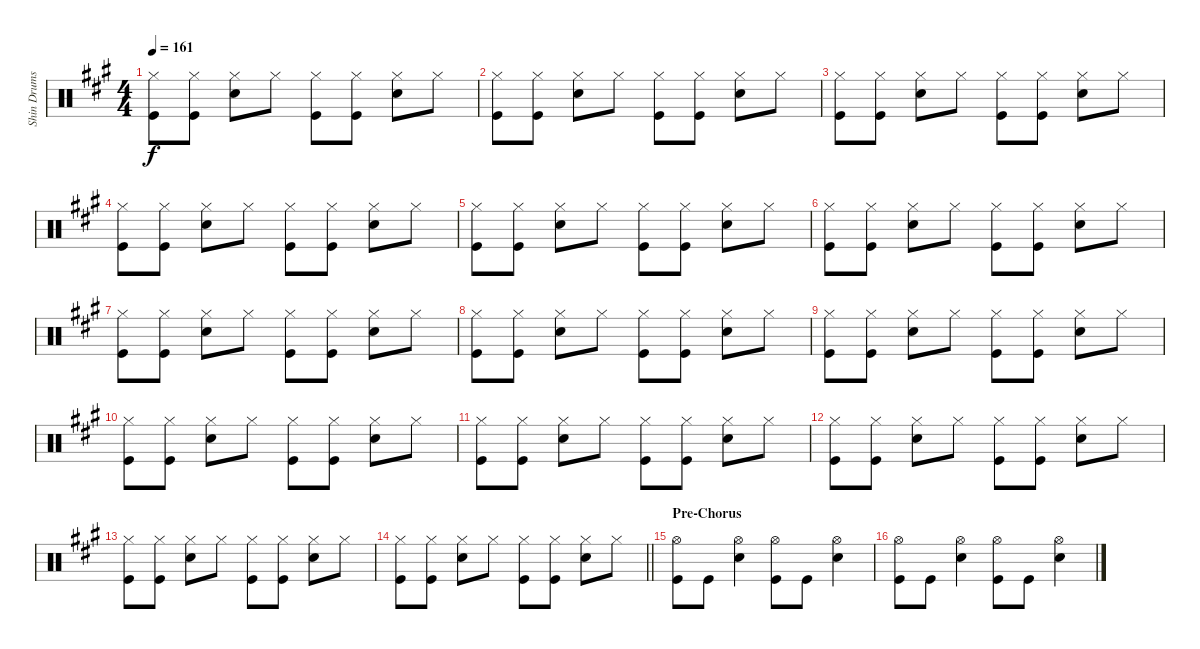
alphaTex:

\track ("Shin Drums" "Shin Drums") {instrument percussion}
\staff {score}
\articulation defaults
\ts (4 4)
\tempo 161
\clef neutral
\ks a
("Hi-Hat (closed)" "Kick (hit)").8{dy f} ("Hi-Hat (closed)" "Kick (hit)").8 ("Hi-Hat (closed)" "Snare (hit) 2").8 "Hi-Hat (closed)".8 ("Hi-Hat (closed)" "Kick (hit)").8 ("Hi-Hat (closed)" "Kick (hit)").8 ("Hi-Hat (closed)" "Snare (hit) 2").8 "Hi-Hat (closed)".8 |
("Hi-Hat (closed)" "Kick (hit)").8 ("Hi-Hat (closed)" "Kick (hit)").8 ("Hi-Hat (closed)" "Snare (hit) 2").8 "Hi-Hat (closed)".8 ("Hi-Hat (closed)" "Kick (hit)").8 ("Hi-Hat (closed)" "Kick (hit)").8 ("Hi-Hat (closed)" "Snare (hit) 2").8 "Hi-Hat (closed)".8 |
("Hi-Hat (closed)" "Kick (hit)").8 ("Hi-Hat (closed)" "Kick (hit)").8 ("Hi-Hat (closed)" "Snare (hit) 2").8 "Hi-Hat (closed)".8 ("Hi-Hat (closed)" "Kick (hit)").8 ("Hi-Hat (closed)" "Kick (hit)").8 ("Hi-Hat (closed)" "Snare (hit) 2").8 "Hi-Hat (closed)".8 |
("Hi-Hat (closed)" "Kick (hit)").8 ("Hi-Hat (closed)" "Kick (hit)").8 ("Hi-Hat (closed)" "Snare (hit) 2").8 "Hi-Hat (closed)".8 ("Hi-Hat (closed)" "Kick (hit)").8 ("Hi-Hat (closed)" "Kick (hit)").8 ("Hi-Hat (closed)" "Snare (hit) 2").8 "Hi-Hat (closed)".8 |
("Hi-Hat (closed)" "Kick (hit)").8 ("Hi-Hat (closed)" "Kick (hit)").8 ("Hi-Hat (closed)" "Snare (hit) 2").8 "Hi-Hat (closed)".8 ("Hi-Hat (closed)" "Kick (hit)").8 ("Hi-Hat (closed)" "Kick (hit)").8 ("Hi-Hat (closed)" "Snare (hit) 2").8 "Hi-Hat (closed)".8 |
("Hi-Hat (closed)" "Kick (hit)").8 ("Hi-Hat (closed)" "Kick (hit)").8 ("Hi-Hat (closed)" "Snare (hit) 2").8 "Hi-Hat (closed)".8 ("Hi-Hat (closed)" "Kick (hit)").8 ("Hi-Hat (closed)" "Kick (hit)").8 ("Hi-Hat (closed)" "Snare (hit) 2").8 "Hi-Hat (closed)".8 |
("Hi-Hat (closed)" "Kick (hit)").8 ("Hi-Hat (closed)" "Kick (hit)").8 ("Hi-Hat (closed)" "Snare (hit) 2").8 "Hi-Hat (closed)".8 ("Hi-Hat (closed)" "Kick (hit)").8 ("Hi-Hat (closed)" "Kick (hit)").8 ("Hi-Hat (closed)" "Snare (hit) 2").8 "Hi-Hat (closed)".8 |
("Hi-Hat (closed)" "Kick (hit)").8 ("Hi-Hat (closed)" "Kick (hit)").8 ("Hi-Hat (closed)" "Snare (hit) 2").8 "Hi-Hat (closed)".8 ("Hi-Hat (closed)" "Kick (hit)").8 ("Hi-Hat (closed)" "Kick (hit)").8 ("Hi-Hat (closed)" "Snare (hit) 2").8 "Hi-Hat (closed)".8 |
("Hi-Hat (closed)" "Kick (hit)").8 ("Hi-Hat (closed)" "Kick (hit)").8 ("Hi-Hat (closed)" "Snare (hit) 2").8 "Hi-Hat (closed)".8 ("Hi-Hat (closed)" "Kick (hit)").8 ("Hi-Hat (closed)" "Kick (hit)").8 ("Hi-Hat (closed)" "Snare (hit) 2").8 "Hi-Hat (closed)".8 |
("Hi-Hat (closed)" "Kick (hit)").8 ("Hi-Hat (closed)" "Kick (hit)").8 ("Hi-Hat (closed)" "Snare (hit) 2").8 "Hi-Hat (closed)".8 ("Hi-Hat (closed)" "Kick (hit)").8 ("Hi-Hat (closed)" "Kick (hit)").8 ("Hi-Hat (closed)" "Snare (hit) 2").8 "Hi-Hat (closed)".8 |
("Hi-Hat (closed)" "Kick (hit)").8 ("Hi-Hat (closed)" "Kick (hit)").8 ("Hi-Hat (closed)" "Snare (hit) 2").8 "Hi-Hat (closed)".8 ("Hi-Hat (closed)" "Kick (hit)").8 ("Hi-Hat (closed)" "Kick (hit)").8 ("Hi-Hat (closed)" "Snare (hit) 2").8 "Hi-Hat (closed)".8 |
("Hi-Hat (closed)" "Kick (hit)").8 ("Hi-Hat (closed)" "Kick (hit)").8 ("Hi-Hat (closed)" "Snare (hit) 2").8 "Hi-Hat (closed)".8 ("Hi-Hat (closed)" "Kick (hit)").8 ("Hi-Hat (closed)" "Kick (hit)").8 ("Hi-Hat (closed)" "Snare (hit) 2").8 "Hi-Hat (closed)".8 |
("Hi-Hat (closed)" "Kick (hit)").8 ("Hi-Hat (closed)" "Kick (hit)").8 ("Hi-Hat (closed)" "Snare (hit) 2").8 "Hi-Hat (closed)".8 ("Hi-Hat (closed)" "Kick (hit)").8 ("Hi-Hat (closed)" "Kick (hit)").8 ("Hi-Hat (closed)" "Snare (hit) 2").8 "Hi-Hat (closed)".8 |
\barLineRight lightlight
("Hi-Hat (closed)" "Kick (hit)").8 ("Hi-Hat (closed)" "Kick (hit)").8 ("Hi-Hat (closed)" "Snare (hit) 2").8 "Hi-Hat (closed)".8 ("Hi-Hat (closed)" "Kick (hit)").8 ("Hi-Hat (closed)" "Kick (hit)").8 ("Hi-Hat (closed)" "Snare (hit) 2").8 "Hi-Hat (closed)".8 |
\section ("" "Pre-Chorus")
("Hi-Hat (open)" "Kick (hit)").8 "Kick (hit)".8 ("Hi-Hat (open)" "Snare (hit) 2").4 ("Hi-Hat (open)" "Kick (hit)").8 "Kick (hit)".8 ("Hi-Hat (open)" "Snare (hit) 2").4 |
("Hi-Hat (open)" "Kick (hit)").8 "Kick (hit)".8 ("Hi-Hat (open)" "Snare (hit) 2").4 ("Hi-Hat (open)" "Kick (hit)").8 "Kick (hit)".8 ("Hi-Hat (open)" "Snare (hit) 2").4
